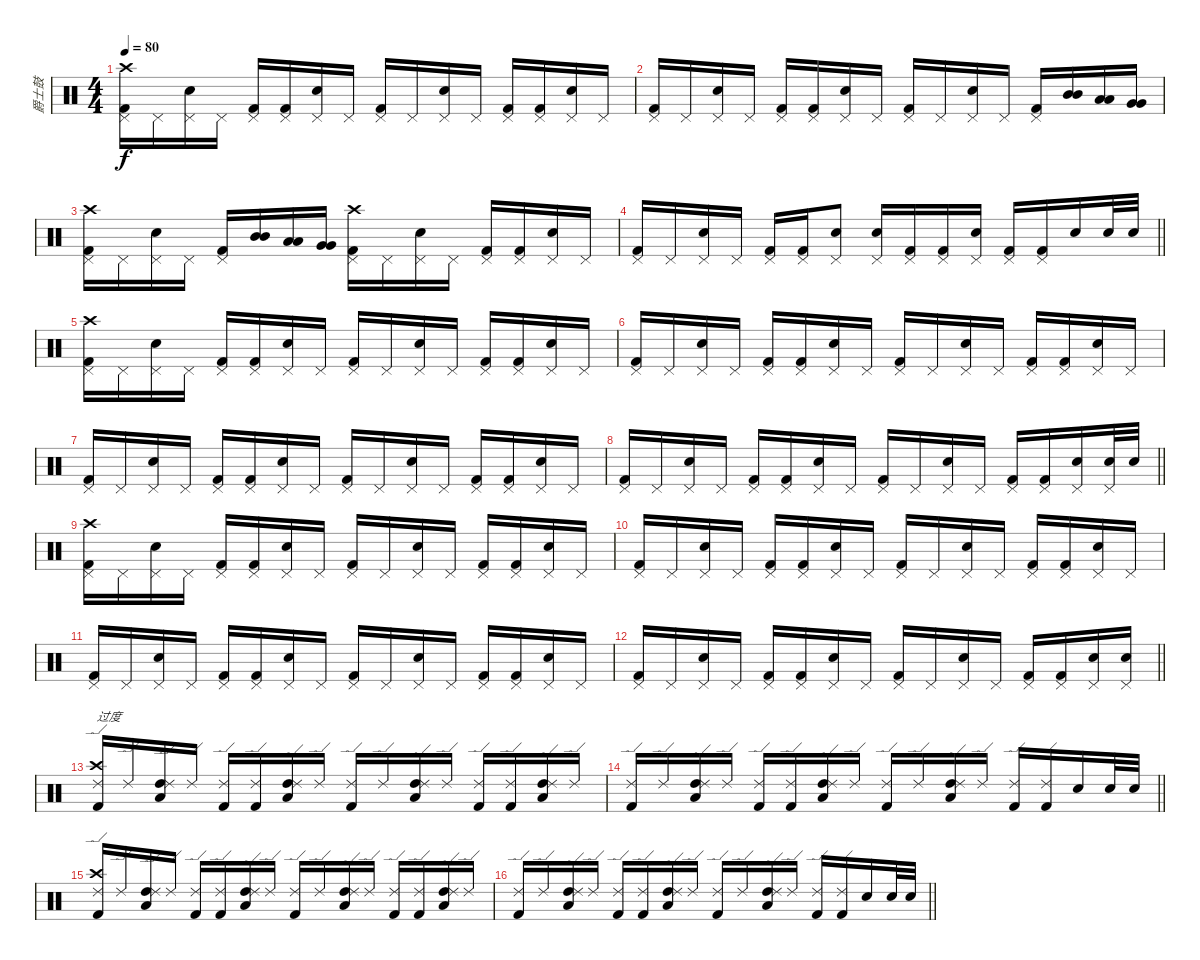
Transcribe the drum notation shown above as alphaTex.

\track ("爵士鼓" "爵士鼓") {instrument percussion}
\staff {score}
\articulation defaults
\ts (4 4)
\tempo 80
\clef neutral
\ks c
("Pedal Hi-Hat (hit)" "Kick (hit) 2" "Crash high (hit)").16{dy f} "Pedal Hi-Hat (hit)".16 ("Pedal Hi-Hat (hit)" "Snare (hit) 2").16 "Pedal Hi-Hat (hit)".16 ("Pedal Hi-Hat (hit)" "Kick (hit) 2").16 ("Pedal Hi-Hat (hit)" "Kick (hit) 2").16 ("Pedal Hi-Hat (hit)" "Snare (hit) 2").16 "Pedal Hi-Hat (hit)".16 ("Pedal Hi-Hat (hit)" "Kick (hit) 2").16 "Pedal Hi-Hat (hit)".16 ("Pedal Hi-Hat (hit)" "Snare (hit) 2").16 "Pedal Hi-Hat (hit)".16 ("Pedal Hi-Hat (hit)" "Kick (hit) 2").16 ("Pedal Hi-Hat (hit)" "Kick (hit) 2").16 ("Pedal Hi-Hat (hit)" "Snare (hit) 2").16 "Pedal Hi-Hat (hit)".16 |
("Pedal Hi-Hat (hit)" "Kick (hit) 2").16 "Pedal Hi-Hat (hit)".16 ("Pedal Hi-Hat (hit)" "Snare (hit) 2").16 "Pedal Hi-Hat (hit)".16 ("Pedal Hi-Hat (hit)" "Kick (hit) 2").16 ("Pedal Hi-Hat (hit)" "Kick (hit) 2").16 ("Pedal Hi-Hat (hit)" "Snare (hit) 2").16 "Pedal Hi-Hat (hit)".16 ("Pedal Hi-Hat (hit)" "Kick (hit) 2").16 "Pedal Hi-Hat (hit)".16 ("Pedal Hi-Hat (hit)" "Snare (hit) 2").16 "Pedal Hi-Hat (hit)".16 ("Pedal Hi-Hat (hit)" "Kick (hit) 2").16 ("Mid Tom (hit)" "Mid Tom (hit)").16 ("Low Tom (hit)" "Low Tom (hit)").16 ("Very Low Tom (hit)" "Very Low Tom (hit)").16 |
("Pedal Hi-Hat (hit)" "Kick (hit) 2" "Crash high (hit)").16 "Pedal Hi-Hat (hit)".16 ("Pedal Hi-Hat (hit)" "Snare (hit) 2").16 "Pedal Hi-Hat (hit)".16 ("Pedal Hi-Hat (hit)" "Kick (hit) 2").16 ("Mid Tom (hit)" "Mid Tom (hit)").16 ("Low Tom (hit)" "Low Tom (hit)").16 ("Very Low Tom (hit)" "Very Low Tom (hit)").16 ("Pedal Hi-Hat (hit)" "Kick (hit) 2" "Crash high (hit)").16 "Pedal Hi-Hat (hit)".16 ("Pedal Hi-Hat (hit)" "Snare (hit) 2").16 "Pedal Hi-Hat (hit)".16 ("Pedal Hi-Hat (hit)" "Kick (hit) 2").16 ("Pedal Hi-Hat (hit)" "Kick (hit) 2").16 ("Pedal Hi-Hat (hit)" "Snare (hit) 2").16 "Pedal Hi-Hat (hit)".16 |
\barLineRight lightlight
("Pedal Hi-Hat (hit)" "Kick (hit) 2").16 "Pedal Hi-Hat (hit)".16 ("Pedal Hi-Hat (hit)" "Snare (hit) 2").16 "Pedal Hi-Hat (hit)".16 ("Pedal Hi-Hat (hit)" "Kick (hit) 2").16 ("Pedal Hi-Hat (hit)" "Kick (hit) 2").16 ("Pedal Hi-Hat (hit)" "Snare (hit) 2").8 ("Pedal Hi-Hat (hit)" "Snare (hit) 2").16 ("Pedal Hi-Hat (hit)" "Kick (hit) 2").16 ("Pedal Hi-Hat (hit)" "Kick (hit) 2").16 ("Pedal Hi-Hat (hit)" "Snare (hit) 2").16 ("Pedal Hi-Hat (hit)" "Kick (hit) 2").16 ("Pedal Hi-Hat (hit)" "Kick (hit) 2").16 "Snare (hit) 2".16 "Snare (hit) 2".32 "Snare (hit) 2".32 |
("Pedal Hi-Hat (hit)" "Kick (hit) 2" "Crash high (hit)").16 "Pedal Hi-Hat (hit)".16 ("Pedal Hi-Hat (hit)" "Snare (hit) 2").16 "Pedal Hi-Hat (hit)".16 ("Pedal Hi-Hat (hit)" "Kick (hit) 2").16 ("Pedal Hi-Hat (hit)" "Kick (hit) 2").16 ("Pedal Hi-Hat (hit)" "Snare (hit) 2").16 "Pedal Hi-Hat (hit)".16 ("Pedal Hi-Hat (hit)" "Kick (hit) 2").16 "Pedal Hi-Hat (hit)".16 ("Pedal Hi-Hat (hit)" "Snare (hit) 2").16 "Pedal Hi-Hat (hit)".16 ("Pedal Hi-Hat (hit)" "Kick (hit) 2").16 ("Pedal Hi-Hat (hit)" "Kick (hit) 2").16 ("Pedal Hi-Hat (hit)" "Snare (hit) 2").16 "Pedal Hi-Hat (hit)".16 |
("Pedal Hi-Hat (hit)" "Kick (hit) 2").16 "Pedal Hi-Hat (hit)".16 ("Pedal Hi-Hat (hit)" "Snare (hit) 2").16 "Pedal Hi-Hat (hit)".16 ("Pedal Hi-Hat (hit)" "Kick (hit) 2").16 ("Pedal Hi-Hat (hit)" "Kick (hit) 2").16 ("Pedal Hi-Hat (hit)" "Snare (hit) 2").16 "Pedal Hi-Hat (hit)".16 ("Pedal Hi-Hat (hit)" "Kick (hit) 2").16 "Pedal Hi-Hat (hit)".16 ("Pedal Hi-Hat (hit)" "Snare (hit) 2").16 "Pedal Hi-Hat (hit)".16 ("Pedal Hi-Hat (hit)" "Kick (hit) 2").16 ("Pedal Hi-Hat (hit)" "Kick (hit) 2").16 ("Pedal Hi-Hat (hit)" "Snare (hit) 2").16 "Pedal Hi-Hat (hit)".16 |
("Pedal Hi-Hat (hit)" "Kick (hit) 2").16 "Pedal Hi-Hat (hit)".16 ("Pedal Hi-Hat (hit)" "Snare (hit) 2").16 "Pedal Hi-Hat (hit)".16 ("Pedal Hi-Hat (hit)" "Kick (hit) 2").16 ("Pedal Hi-Hat (hit)" "Kick (hit) 2").16 ("Pedal Hi-Hat (hit)" "Snare (hit) 2").16 "Pedal Hi-Hat (hit)".16 ("Pedal Hi-Hat (hit)" "Kick (hit) 2").16 "Pedal Hi-Hat (hit)".16 ("Pedal Hi-Hat (hit)" "Snare (hit) 2").16 "Pedal Hi-Hat (hit)".16 ("Pedal Hi-Hat (hit)" "Kick (hit) 2").16 ("Pedal Hi-Hat (hit)" "Kick (hit) 2").16 ("Pedal Hi-Hat (hit)" "Snare (hit) 2").16 "Pedal Hi-Hat (hit)".16 |
\barLineRight lightlight
("Pedal Hi-Hat (hit)" "Kick (hit) 2").16 "Pedal Hi-Hat (hit)".16 ("Pedal Hi-Hat (hit)" "Snare (hit) 2").16 "Pedal Hi-Hat (hit)".16 ("Pedal Hi-Hat (hit)" "Kick (hit) 2").16 ("Pedal Hi-Hat (hit)" "Kick (hit) 2").16 ("Pedal Hi-Hat (hit)" "Snare (hit) 2").16 "Pedal Hi-Hat (hit)".16 ("Pedal Hi-Hat (hit)" "Kick (hit) 2").16 "Pedal Hi-Hat (hit)".16 ("Pedal Hi-Hat (hit)" "Snare (hit) 2").16 "Pedal Hi-Hat (hit)".16 ("Pedal Hi-Hat (hit)" "Kick (hit) 2").16 ("Pedal Hi-Hat (hit)" "Kick (hit) 2").16 ("Pedal Hi-Hat (hit)" "Snare (hit) 2").16 ("Pedal Hi-Hat (hit)" "Snare (hit) 2").32 "Snare (hit) 2".32 |
("Pedal Hi-Hat (hit)" "Kick (hit) 2" "Crash high (hit)").16 "Pedal Hi-Hat (hit)".16 ("Pedal Hi-Hat (hit)" "Snare (hit) 2").16 "Pedal Hi-Hat (hit)".16 ("Pedal Hi-Hat (hit)" "Kick (hit) 2").16 ("Pedal Hi-Hat (hit)" "Kick (hit) 2").16 ("Pedal Hi-Hat (hit)" "Snare (hit) 2").16 "Pedal Hi-Hat (hit)".16 ("Pedal Hi-Hat (hit)" "Kick (hit) 2").16 "Pedal Hi-Hat (hit)".16 ("Pedal Hi-Hat (hit)" "Snare (hit) 2").16 "Pedal Hi-Hat (hit)".16 ("Pedal Hi-Hat (hit)" "Kick (hit) 2").16 ("Pedal Hi-Hat (hit)" "Kick (hit) 2").16 ("Pedal Hi-Hat (hit)" "Snare (hit) 2").16 "Pedal Hi-Hat (hit)".16 |
("Pedal Hi-Hat (hit)" "Kick (hit) 2").16 "Pedal Hi-Hat (hit)".16 ("Pedal Hi-Hat (hit)" "Snare (hit) 2").16 "Pedal Hi-Hat (hit)".16 ("Pedal Hi-Hat (hit)" "Kick (hit) 2").16 ("Pedal Hi-Hat (hit)" "Kick (hit) 2").16 ("Pedal Hi-Hat (hit)" "Snare (hit) 2").16 "Pedal Hi-Hat (hit)".16 ("Pedal Hi-Hat (hit)" "Kick (hit) 2").16 "Pedal Hi-Hat (hit)".16 ("Pedal Hi-Hat (hit)" "Snare (hit) 2").16 "Pedal Hi-Hat (hit)".16 ("Pedal Hi-Hat (hit)" "Kick (hit) 2").16 ("Pedal Hi-Hat (hit)" "Kick (hit) 2").16 ("Pedal Hi-Hat (hit)" "Snare (hit) 2").16 "Pedal Hi-Hat (hit)".16 |
("Pedal Hi-Hat (hit)" "Kick (hit) 2").16 "Pedal Hi-Hat (hit)".16 ("Pedal Hi-Hat (hit)" "Snare (hit) 2").16 "Pedal Hi-Hat (hit)".16 ("Pedal Hi-Hat (hit)" "Kick (hit) 2").16 ("Pedal Hi-Hat (hit)" "Kick (hit) 2").16 ("Pedal Hi-Hat (hit)" "Snare (hit) 2").16 "Pedal Hi-Hat (hit)".16 ("Pedal Hi-Hat (hit)" "Kick (hit) 2").16 "Pedal Hi-Hat (hit)".16 ("Pedal Hi-Hat (hit)" "Snare (hit) 2").16 "Pedal Hi-Hat (hit)".16 ("Pedal Hi-Hat (hit)" "Kick (hit) 2").16 ("Pedal Hi-Hat (hit)" "Kick (hit) 2").16 ("Pedal Hi-Hat (hit)" "Snare (hit) 2").16 "Pedal Hi-Hat (hit)".16 |
\barLineRight lightlight
("Pedal Hi-Hat (hit)" "Kick (hit) 2").16 "Pedal Hi-Hat (hit)".16 ("Pedal Hi-Hat (hit)" "Snare (hit) 2").16 "Pedal Hi-Hat (hit)".16 ("Pedal Hi-Hat (hit)" "Kick (hit) 2").16 ("Pedal Hi-Hat (hit)" "Kick (hit) 2").16 ("Pedal Hi-Hat (hit)" "Snare (hit) 2").16 "Pedal Hi-Hat (hit)".16 ("Pedal Hi-Hat (hit)" "Kick (hit) 2").16 "Pedal Hi-Hat (hit)".16 ("Pedal Hi-Hat (hit)" "Snare (hit) 2").16 "Pedal Hi-Hat (hit)".16 ("Pedal Hi-Hat (hit)" "Kick (hit) 2").16 ("Pedal Hi-Hat (hit)" "Kick (hit) 2").16 ("Pedal Hi-Hat (hit)" "Snare (hit) 2").16 ("Pedal Hi-Hat (hit)" "Snare (hit) 2").16 |
("Crash high (hit)" "Kick (hit) 2" "Ride (edge) 2").16{txt "过度"} "Ride (edge) 2".16 ("Low Tom (hit)" "High Tom (hit)" "Ride (edge) 2").16 "Ride (edge) 2".16 ("Kick (hit) 2" "Ride (edge) 2").16 ("Kick (hit) 2" "Ride (edge) 2").16 ("Low Tom (hit)" "High Tom (hit)" "Ride (edge) 2").16 "Ride (edge) 2".16 ("Kick (hit) 2" "Ride (edge) 2").16 "Ride (edge) 2".16 ("Low Tom (hit)" "High Tom (hit)" "Ride (edge) 2").16 "Ride (edge) 2".16 ("Kick (hit) 2" "Ride (edge) 2").16 ("Kick (hit) 2" "Ride (edge) 2").16 ("Low Tom (hit)" "High Tom (hit)" "Ride (edge) 2").16 "Ride (edge) 2".16 |
\barLineRight lightlight
("Kick (hit) 2" "Ride (edge) 2").16 "Ride (edge) 2".16 ("Low Tom (hit)" "High Tom (hit)" "Ride (edge) 2").16 "Ride (edge) 2".16 ("Kick (hit) 2" "Ride (edge) 2").16 ("Kick (hit) 2" "Ride (edge) 2").16 ("Low Tom (hit)" "High Tom (hit)" "Ride (edge) 2").16 "Ride (edge) 2".16 ("Kick (hit) 2" "Ride (edge) 2").16 "Ride (edge) 2".16 ("Low Tom (hit)" "High Tom (hit)" "Ride (edge) 2").16 "Ride (edge) 2".16 ("Kick (hit) 2" "Ride (edge) 2").16 ("Kick (hit) 2" "Ride (edge) 2").16 "Snare (hit) 2".16 "Snare (hit) 2".32 "Snare (hit) 2".32 |
("Crash high (hit)" "Kick (hit) 2" "Ride (edge) 2").16 "Ride (edge) 2".16 ("Low Tom (hit)" "High Tom (hit)" "Ride (edge) 2").16 "Ride (edge) 2".16 ("Kick (hit) 2" "Ride (edge) 2").16 ("Kick (hit) 2" "Ride (edge) 2").16 ("Low Tom (hit)" "High Tom (hit)" "Ride (edge) 2").16 "Ride (edge) 2".16 ("Kick (hit) 2" "Ride (edge) 2").16 "Ride (edge) 2".16 ("Low Tom (hit)" "High Tom (hit)" "Ride (edge) 2").16 "Ride (edge) 2".16 ("Kick (hit) 2" "Ride (edge) 2").16 ("Kick (hit) 2" "Ride (edge) 2").16 ("Low Tom (hit)" "High Tom (hit)" "Ride (edge) 2").16 "Ride (edge) 2".16 |
\barLineRight lightlight
("Kick (hit) 2" "Ride (edge) 2").16 "Ride (edge) 2".16 ("Low Tom (hit)" "High Tom (hit)" "Ride (edge) 2").16 "Ride (edge) 2".16 ("Kick (hit) 2" "Ride (edge) 2").16 ("Kick (hit) 2" "Ride (edge) 2").16 ("Low Tom (hit)" "High Tom (hit)" "Ride (edge) 2").16 "Ride (edge) 2".16 ("Kick (hit) 2" "Ride (edge) 2").16 "Ride (edge) 2".16 ("Low Tom (hit)" "High Tom (hit)" "Ride (edge) 2").16 "Ride (edge) 2".16 ("Kick (hit) 2" "Ride (edge) 2").16 ("Kick (hit) 2" "Ride (edge) 2").16 "Snare (hit) 2".16 "Snare (hit) 2".32 "Snare (hit) 2".32
